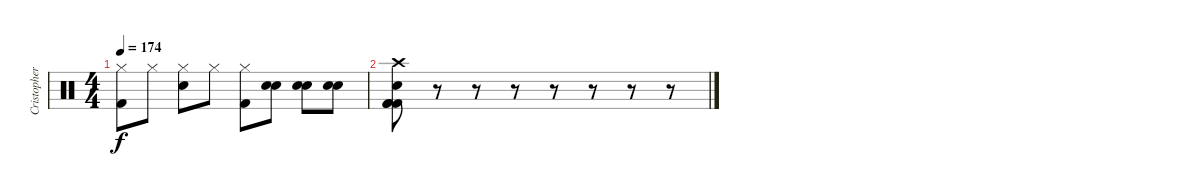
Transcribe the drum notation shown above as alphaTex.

\track ("Cristopher S. (Drums)" "Cristopher") {instrument percussion}
\staff {score}
\articulation defaults
\ts (4 4)
\tempo 174
\clef neutral
\ks c
("Kick (hit) 2" "Hi-Hat (closed)").8{dy f} "Hi-Hat (closed)".8 ("Electric Snare (hit)" "Hi-Hat (closed)").8 "Hi-Hat (closed)".8 ("Kick (hit) 2" "Hi-Hat (closed)").8 ("Electric Snare (hit)" "Electric Snare (hit)").8 ("Electric Snare (hit)" "Electric Snare (hit)").8 ("Electric Snare (hit)" "Electric Snare (hit)").8 |
("Kick (hit) 2" "Kick (hit) 2" "Electric Snare (hit)" "Kick (hit) 2" "Crash high (hit)").8 r.8 r.8 r.8 r.8 r.8 r.8 r.8
